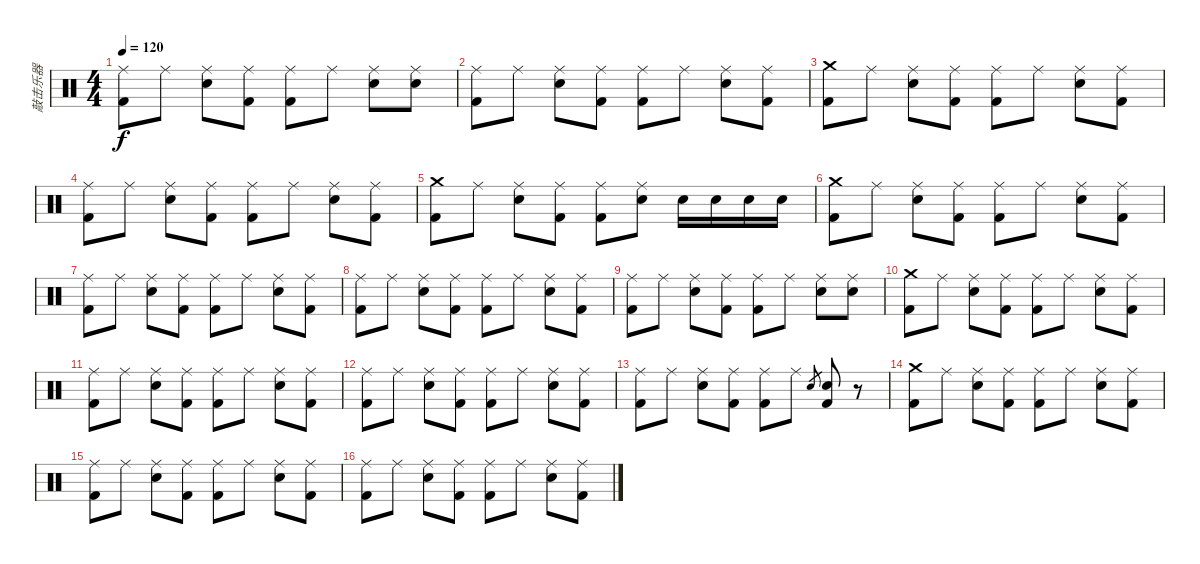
\track ("敲击乐器" "敲击乐器") {instrument percussion}
\staff {score}
\articulation defaults
\ts (4 4)
\tempo 120
\clef neutral
\ks c
("Ride (middle)" "Kick (hit) 2").8{dy f} "Ride (middle)".8 ("Ride (middle)" "Electric Snare (hit)").8 ("Ride (middle)" "Kick (hit) 2").8 ("Ride (middle)" "Kick (hit) 2").8 "Ride (middle)".8 ("Ride (middle)" "Electric Snare (hit)").8 ("Ride (middle)" "Electric Snare (hit)").8 |
("Ride (middle)" "Kick (hit) 2").8 "Ride (middle)".8 ("Ride (middle)" "Electric Snare (hit)").8 ("Ride (middle)" "Kick (hit) 2").8 ("Ride (middle)" "Kick (hit) 2").8 "Ride (middle)".8 ("Ride (middle)" "Electric Snare (hit)").8 ("Ride (middle)" "Kick (hit) 2").8 |
("Crash medium (hit)" "Kick (hit) 2").8 "Ride (middle)".8 ("Ride (middle)" "Electric Snare (hit)").8 ("Ride (middle)" "Kick (hit) 2").8 ("Ride (middle)" "Kick (hit) 2").8 "Ride (middle)".8 ("Ride (middle)" "Electric Snare (hit)").8 ("Ride (middle)" "Kick (hit) 2").8 |
("Ride (middle)" "Kick (hit) 2").8 "Ride (middle)".8 ("Ride (middle)" "Electric Snare (hit)").8 ("Ride (middle)" "Kick (hit) 2").8 ("Ride (middle)" "Kick (hit) 2").8 "Ride (middle)".8 ("Ride (middle)" "Electric Snare (hit)").8 ("Ride (middle)" "Kick (hit) 2").8 |
("Crash medium (hit)" "Kick (hit) 2").8 "Ride (middle)".8 ("Ride (middle)" "Electric Snare (hit)").8 ("Ride (middle)" "Kick (hit) 2").8 ("Ride (middle)" "Kick (hit) 2").8 ("Ride (middle)" "Electric Snare (hit)").8 "Electric Snare (hit)".16 "Electric Snare (hit)".16 "Electric Snare (hit)".16 "Electric Snare (hit)".16 |
("Crash medium (hit)" "Kick (hit) 2").8 "Ride (middle)".8 ("Ride (middle)" "Electric Snare (hit)").8 ("Ride (middle)" "Kick (hit) 2").8 ("Ride (middle)" "Kick (hit) 2").8 "Ride (middle)".8 ("Ride (middle)" "Electric Snare (hit)").8 ("Ride (middle)" "Kick (hit) 2").8 |
("Ride (middle)" "Kick (hit) 2").8 "Ride (middle)".8 ("Ride (middle)" "Electric Snare (hit)").8 ("Ride (middle)" "Kick (hit) 2").8 ("Ride (middle)" "Kick (hit) 2").8 "Ride (middle)".8 ("Ride (middle)" "Electric Snare (hit)").8 ("Ride (middle)" "Kick (hit) 2").8 |
("Ride (middle)" "Kick (hit) 2").8 "Ride (middle)".8 ("Ride (middle)" "Electric Snare (hit)").8 ("Ride (middle)" "Kick (hit) 2").8 ("Ride (middle)" "Kick (hit) 2").8 "Ride (middle)".8 ("Ride (middle)" "Electric Snare (hit)").8 ("Ride (middle)" "Kick (hit) 2").8 |
("Ride (middle)" "Kick (hit) 2").8 "Ride (middle)".8 ("Ride (middle)" "Electric Snare (hit)").8 ("Ride (middle)" "Kick (hit) 2").8 ("Ride (middle)" "Kick (hit) 2").8 "Ride (middle)".8 ("Ride (middle)" "Electric Snare (hit)").8 ("Ride (middle)" "Electric Snare (hit)").8 |
("Crash medium (hit)" "Kick (hit) 2").8 "Ride (middle)".8 ("Ride (middle)" "Electric Snare (hit)").8 ("Ride (middle)" "Kick (hit) 2").8 ("Ride (middle)" "Kick (hit) 2").8 "Ride (middle)".8 ("Ride (middle)" "Electric Snare (hit)").8 ("Ride (middle)" "Kick (hit) 2").8 |
("Ride (middle)" "Kick (hit) 2").8 "Ride (middle)".8 ("Ride (middle)" "Electric Snare (hit)").8 ("Ride (middle)" "Kick (hit) 2").8 ("Ride (middle)" "Kick (hit) 2").8 "Ride (middle)".8 ("Ride (middle)" "Electric Snare (hit)").8 ("Ride (middle)" "Kick (hit) 2").8 |
("Ride (middle)" "Kick (hit) 2").8 "Ride (middle)".8 ("Ride (middle)" "Electric Snare (hit)").8 ("Ride (middle)" "Kick (hit) 2").8 ("Ride (middle)" "Kick (hit) 2").8 "Ride (middle)".8 ("Ride (middle)" "Electric Snare (hit)").8 ("Ride (middle)" "Kick (hit) 2").8 |
("Ride (middle)" "Kick (hit) 2").8 "Ride (middle)".8 ("Ride (middle)" "Electric Snare (hit)").8 ("Ride (middle)" "Kick (hit) 2").8 ("Ride (middle)" "Kick (hit) 2").8 "Ride (middle)".8 "Electric Snare (hit)".8{gr} ("Electric Snare (hit)" "Kick (hit) 2").8 r.8 |
("Crash medium (hit)" "Kick (hit) 2").8 "Ride (middle)".8 ("Ride (middle)" "Electric Snare (hit)").8 ("Ride (middle)" "Kick (hit) 2").8 ("Ride (middle)" "Kick (hit) 2").8 "Ride (middle)".8 ("Ride (middle)" "Electric Snare (hit)").8 ("Ride (middle)" "Kick (hit) 2").8 |
("Ride (middle)" "Kick (hit) 2").8 "Ride (middle)".8 ("Ride (middle)" "Electric Snare (hit)").8 ("Ride (middle)" "Kick (hit) 2").8 ("Ride (middle)" "Kick (hit) 2").8 "Ride (middle)".8 ("Ride (middle)" "Electric Snare (hit)").8 ("Ride (middle)" "Kick (hit) 2").8 |
("Ride (middle)" "Kick (hit) 2").8 "Ride (middle)".8 ("Ride (middle)" "Electric Snare (hit)").8 ("Ride (middle)" "Kick (hit) 2").8 ("Ride (middle)" "Kick (hit) 2").8 "Ride (middle)".8 ("Ride (middle)" "Electric Snare (hit)").8 ("Ride (middle)" "Kick (hit) 2").8
